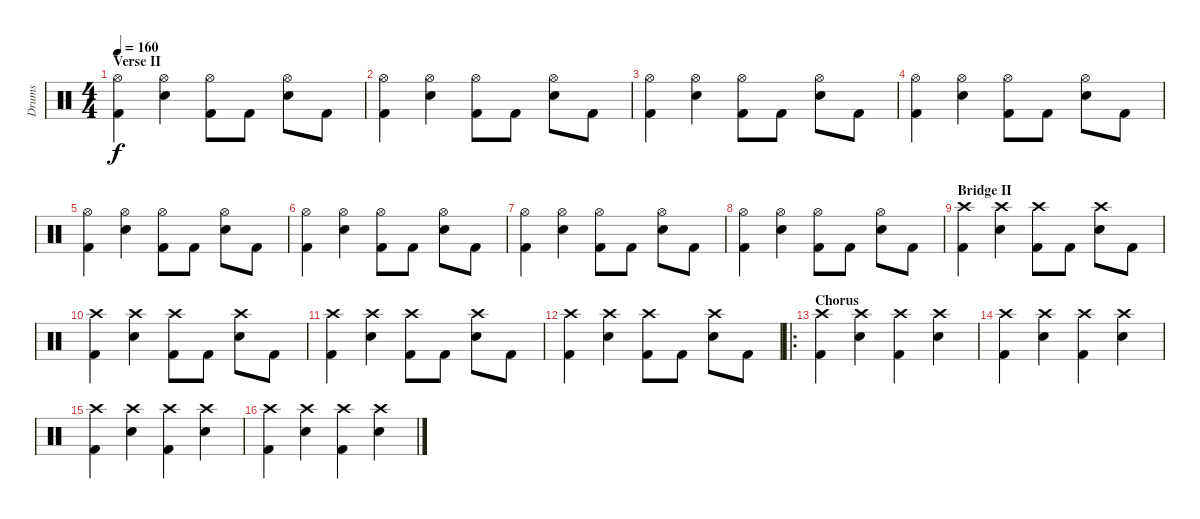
\track ("Drums" "Drums") {instrument percussion}
\staff {score}
\articulation defaults
\ts (4 4)
\section ("" "Verse II")
\tempo 160
\clef neutral
\ks c
("Hi-Hat (open)" "Kick (hit) 2").4{dy f} ("Hi-Hat (open)" "Snare (hit) 2").4 ("Hi-Hat (open)" "Kick (hit) 2").8 "Kick (hit) 2".8 ("Hi-Hat (open)" "Snare (hit) 2").8 "Kick (hit) 2".8 |
("Hi-Hat (open)" "Kick (hit) 2").4 ("Hi-Hat (open)" "Snare (hit) 2").4 ("Hi-Hat (open)" "Kick (hit) 2").8 "Kick (hit) 2".8 ("Hi-Hat (open)" "Snare (hit) 2").8 "Kick (hit) 2".8 |
("Hi-Hat (open)" "Kick (hit) 2").4 ("Hi-Hat (open)" "Snare (hit) 2").4 ("Hi-Hat (open)" "Kick (hit) 2").8 "Kick (hit) 2".8 ("Hi-Hat (open)" "Snare (hit) 2").8 "Kick (hit) 2".8 |
("Hi-Hat (open)" "Kick (hit) 2").4 ("Hi-Hat (open)" "Snare (hit) 2").4 ("Hi-Hat (open)" "Kick (hit) 2").8 "Kick (hit) 2".8 ("Hi-Hat (open)" "Snare (hit) 2").8 "Kick (hit) 2".8 |
("Hi-Hat (open)" "Kick (hit) 2").4 ("Hi-Hat (open)" "Snare (hit) 2").4 ("Hi-Hat (open)" "Kick (hit) 2").8 "Kick (hit) 2".8 ("Hi-Hat (open)" "Snare (hit) 2").8 "Kick (hit) 2".8 |
("Hi-Hat (open)" "Kick (hit) 2").4 ("Hi-Hat (open)" "Snare (hit) 2").4 ("Hi-Hat (open)" "Kick (hit) 2").8 "Kick (hit) 2".8 ("Hi-Hat (open)" "Snare (hit) 2").8 "Kick (hit) 2".8 |
("Hi-Hat (open)" "Kick (hit) 2").4 ("Hi-Hat (open)" "Snare (hit) 2").4 ("Hi-Hat (open)" "Kick (hit) 2").8 "Kick (hit) 2".8 ("Hi-Hat (open)" "Snare (hit) 2").8 "Kick (hit) 2".8 |
("Hi-Hat (open)" "Kick (hit) 2").4 ("Hi-Hat (open)" "Snare (hit) 2").4 ("Hi-Hat (open)" "Kick (hit) 2").8 "Kick (hit) 2".8 ("Hi-Hat (open)" "Snare (hit) 2").8 "Kick (hit) 2".8 |
\section ("" "Bridge II")
("Crash high (hit)" "Kick (hit) 2").4 ("Crash high (hit)" "Snare (hit) 2").4 ("Crash high (hit)" "Kick (hit) 2").8 "Kick (hit) 2".8 ("Crash high (hit)" "Snare (hit) 2").8 "Kick (hit) 2".8 |
("Crash high (hit)" "Kick (hit) 2").4 ("Crash high (hit)" "Snare (hit) 2").4 ("Crash high (hit)" "Kick (hit) 2").8 "Kick (hit) 2".8 ("Crash high (hit)" "Snare (hit) 2").8 "Kick (hit) 2".8 |
("Crash high (hit)" "Kick (hit) 2").4 ("Crash high (hit)" "Snare (hit) 2").4 ("Crash high (hit)" "Kick (hit) 2").8 "Kick (hit) 2".8 ("Crash high (hit)" "Snare (hit) 2").8 "Kick (hit) 2".8 |
("Crash high (hit)" "Kick (hit) 2").4 ("Crash high (hit)" "Snare (hit) 2").4 ("Crash high (hit)" "Kick (hit) 2").8 "Kick (hit) 2".8 ("Crash high (hit)" "Snare (hit) 2").8 "Kick (hit) 2".8 |
\ro
\section ("" "Chorus")
("Crash high (hit)" "Kick (hit) 2").4 ("Crash high (hit)" "Snare (hit) 2").4 ("Crash high (hit)" "Kick (hit) 2").4 ("Crash high (hit)" "Snare (hit) 2").4 |
("Crash high (hit)" "Kick (hit) 2").4 ("Crash high (hit)" "Snare (hit) 2").4 ("Crash high (hit)" "Kick (hit) 2").4 ("Crash high (hit)" "Snare (hit) 2").4 |
("Crash high (hit)" "Kick (hit) 2").4 ("Crash high (hit)" "Snare (hit) 2").4 ("Crash high (hit)" "Kick (hit) 2").4 ("Crash high (hit)" "Snare (hit) 2").4 |
("Crash high (hit)" "Kick (hit) 2").4 ("Crash high (hit)" "Snare (hit) 2").4 ("Crash high (hit)" "Kick (hit) 2").4 ("Crash high (hit)" "Snare (hit) 2").4
